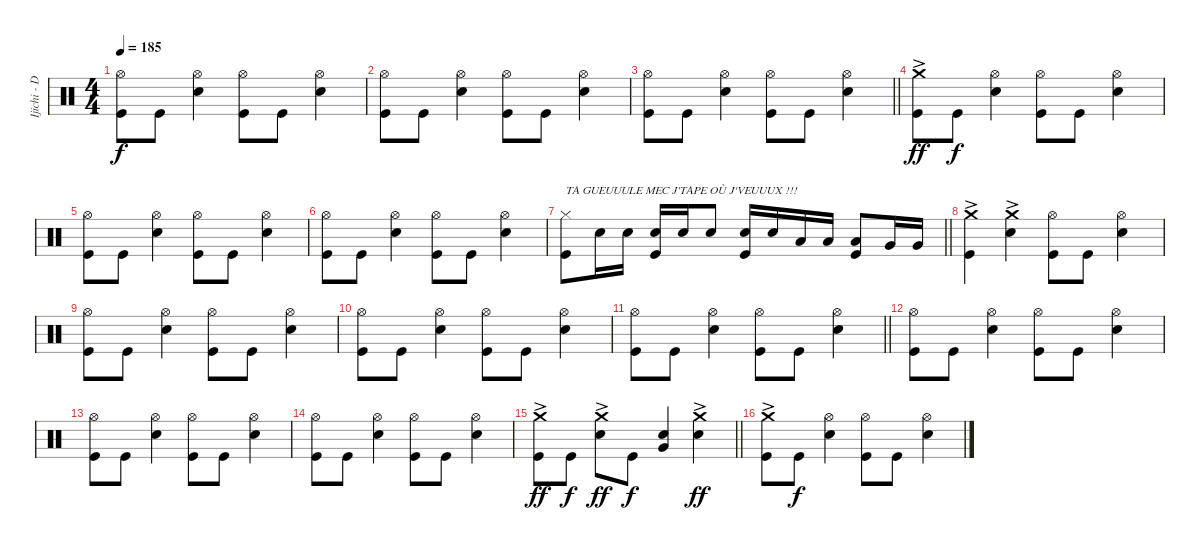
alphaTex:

\track ("Ijichi - Drums" "Ijichi - D") {instrument percussion}
\staff
\articulation defaults
\ts (4 4)
\tempo 185
\clef neutral
\ks c
("Hi-Hat (open)" "Kick (hit)").8{dy f} "Kick (hit)".8 ("Hi-Hat (open)" "Electric Snare (hit)").4 ("Hi-Hat (open)" "Kick (hit)").8 "Kick (hit)".8 ("Hi-Hat (open)" "Electric Snare (hit)").4 |
("Hi-Hat (open)" "Kick (hit)").8 "Kick (hit)".8 ("Hi-Hat (open)" "Electric Snare (hit)").4 ("Hi-Hat (open)" "Kick (hit)").8 "Kick (hit)".8 ("Hi-Hat (open)" "Electric Snare (hit)").4 |
\barLineRight lightlight
("Hi-Hat (open)" "Kick (hit)").8 "Kick (hit)".8 ("Hi-Hat (open)" "Electric Snare (hit)").4 ("Hi-Hat (open)" "Kick (hit)").8 "Kick (hit)".8 ("Hi-Hat (open)" "Electric Snare (hit)").4 |
("Crash medium (hit)"{ac} "Kick (hit)").8{dy ff} "Kick (hit)".8{dy f} ("Hi-Hat (open)" "Electric Snare (hit)").4 ("Hi-Hat (open)" "Kick (hit)").8 "Kick (hit)".8 ("Hi-Hat (open)" "Electric Snare (hit)").4 |
("Hi-Hat (open)" "Kick (hit)").8 "Kick (hit)".8 ("Hi-Hat (open)" "Electric Snare (hit)").4 ("Hi-Hat (open)" "Kick (hit)").8 "Kick (hit)".8 ("Hi-Hat (open)" "Electric Snare (hit)").4 |
("Hi-Hat (open)" "Kick (hit)").8 "Kick (hit)".8 ("Hi-Hat (open)" "Electric Snare (hit)").4 ("Hi-Hat (open)" "Kick (hit)").8 "Kick (hit)".8 ("Hi-Hat (open)" "Electric Snare (hit)").4 |
\barLineRight lightlight
("Hi-Hat (closed)" "Kick (hit)").8{txt "TA GUEUUULE MEC J'TAPE OÙ J'VEUUUX !!!"} "Electric Snare (hit)".16 "Electric Snare (hit)".16 ("Electric Snare (hit)" "Kick (hit)").16 "Electric Snare (hit)".16 "Electric Snare (hit)".8 ("Electric Snare (hit)" "Kick (hit)").16 "Electric Snare (hit)".16 "Low Tom (hit)".16 "Low Tom (hit)".16 ("Low Tom (hit)" "Kick (hit)").8 "Very Low Tom (hit)".16 "Very Low Tom (hit)".16 |
("Crash medium (hit)"{ac} "Kick (hit)").4 ("Crash medium (hit)"{ac} "Electric Snare (hit)").4 ("Hi-Hat (open)" "Kick (hit)").8 "Kick (hit)".8 ("Hi-Hat (open)" "Electric Snare (hit)").4 |
("Hi-Hat (open)" "Kick (hit)").8 "Kick (hit)".8 ("Hi-Hat (open)" "Electric Snare (hit)").4 ("Hi-Hat (open)" "Kick (hit)").8 "Kick (hit)".8 ("Hi-Hat (open)" "Electric Snare (hit)").4 |
("Hi-Hat (open)" "Kick (hit)").8 "Kick (hit)".8 ("Hi-Hat (open)" "Electric Snare (hit)").4 ("Hi-Hat (open)" "Kick (hit)").8 "Kick (hit)".8 ("Hi-Hat (open)" "Electric Snare (hit)").4 |
\barLineRight lightlight
("Hi-Hat (open)" "Kick (hit)").8 "Kick (hit)".8 ("Hi-Hat (open)" "Electric Snare (hit)").4 ("Hi-Hat (open)" "Kick (hit)").8 "Kick (hit)".8 ("Hi-Hat (open)" "Electric Snare (hit)").4 |
("Hi-Hat (open)" "Kick (hit)").8 "Kick (hit)".8 ("Hi-Hat (open)" "Electric Snare (hit)").4 ("Hi-Hat (open)" "Kick (hit)").8 "Kick (hit)".8 ("Hi-Hat (open)" "Electric Snare (hit)").4 |
("Hi-Hat (open)" "Kick (hit)").8 "Kick (hit)".8 ("Hi-Hat (open)" "Electric Snare (hit)").4 ("Hi-Hat (open)" "Kick (hit)").8 "Kick (hit)".8 ("Hi-Hat (open)" "Electric Snare (hit)").4 |
("Hi-Hat (open)" "Kick (hit)").8 "Kick (hit)".8 ("Hi-Hat (open)" "Electric Snare (hit)").4 ("Hi-Hat (open)" "Kick (hit)").8 "Kick (hit)".8 ("Hi-Hat (open)" "Electric Snare (hit)").4 |
\barLineRight lightlight
("Crash medium (hit)"{ac} "Kick (hit)").8{dy ff} "Kick (hit)".8{dy f} ("Crash medium (hit)"{ac} "Electric Snare (hit)").8{dy ff} "Kick (hit)".8{dy f} ("Electric Snare (hit)" "Very Low Tom (hit)").4 ("Crash medium (hit)"{ac} "Electric Snare (hit)").4{dy ff} |
("Crash medium (hit)"{ac} "Kick (hit)").8 "Kick (hit)".8{dy f} ("Hi-Hat (open)" "Electric Snare (hit)").4 ("Hi-Hat (open)" "Kick (hit)").8 "Kick (hit)".8 ("Hi-Hat (open)" "Electric Snare (hit)").4
